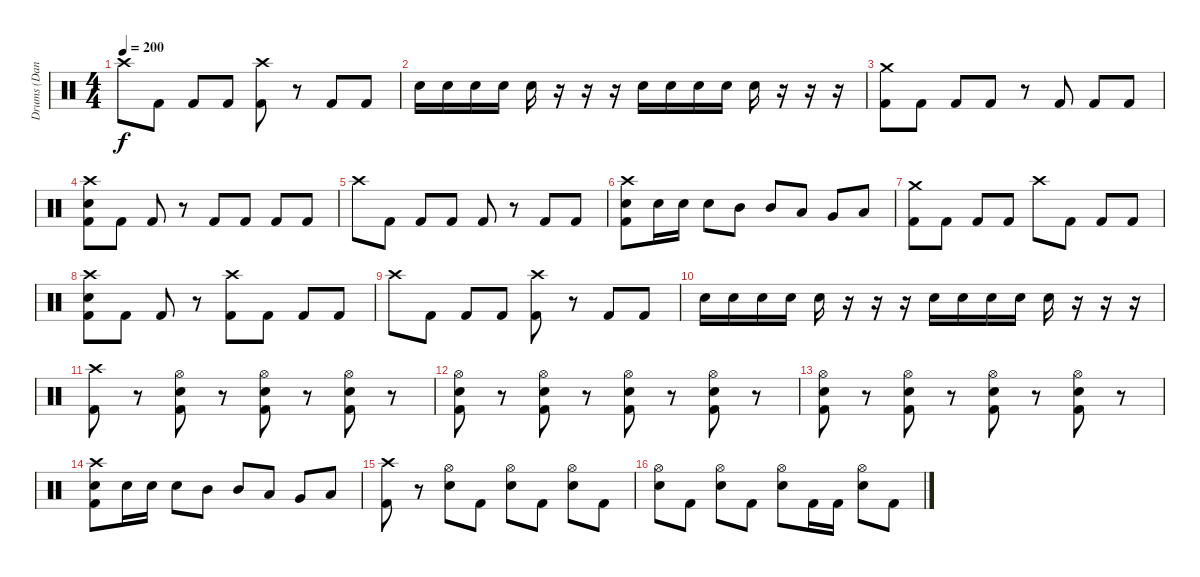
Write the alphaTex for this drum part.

\track ("Drums (Daniel)" "Drums (Dan") {instrument percussion}
\staff {score}
\articulation defaults
\ts (4 4)
\tempo 200
\clef neutral
\ks c "Crash high (hit)".8{dy f} "Kick (hit) 2".8 "Kick (hit) 2".8 "Kick (hit) 2".8
("Crash high (hit)" "Kick (hit) 2").8 r.8 "Kick (hit) 2".8 "Kick (hit) 2".8 |
"Electric Snare (hit)".16 "Electric Snare (hit)".16 "Electric Snare (hit)".16 "Electric Snare (hit)".16 "Electric Snare (hit)".16 r.16 r.16 r.16 "Electric Snare (hit)".16 "Electric Snare (hit)".16 "Electric Snare (hit)".16 "Electric Snare (hit)".16 "Electric Snare (hit)".16 r.16 r.16 r.16 |
("Crash medium (hit)" "Kick (hit) 2").8 "Kick (hit) 2".8 "Kick (hit) 2".8 "Kick (hit) 2".8 r.8 "Kick (hit) 2".8 "Kick (hit) 2".8 "Kick (hit) 2".8 |
("Crash high (hit)" "Electric Snare (hit)" "Kick (hit) 2").8 "Kick (hit) 2".8 "Kick (hit) 2".8 r.8 "Kick (hit) 2".8 "Kick (hit) 2".8 "Kick (hit) 2".8 "Kick (hit) 2".8 |
"Crash high (hit)".8 "Kick (hit) 2".8 "Kick (hit) 2".8 "Kick (hit) 2".8 "Kick (hit) 2".8 r.8 "Kick (hit) 2".8 "Kick (hit) 2".8 |
("Crash high (hit)" "Electric Snare (hit)" "Kick (hit) 2").8 "Electric Snare (hit)".16 "Electric Snare (hit)".16 "Electric Snare (hit)".8 "Mid Tom (hit)".8 "Mid Tom (hit)".8 "Low Tom (hit)".8 "Very Low Tom (hit)".8 "Low Floor Tom (hit)".8 |
("Crash medium (hit)" "Kick (hit) 2").8 "Kick (hit) 2".8 "Kick (hit) 2".8 "Kick (hit) 2".8 "Crash high (hit)".8 "Kick (hit) 2".8 "Kick (hit) 2".8 "Kick (hit) 2".8 |
("Crash high (hit)" "Electric Snare (hit)" "Kick (hit) 2").8 "Kick (hit) 2".8 "Kick (hit) 2".8 r.8 ("Crash high (hit)" "Kick (hit) 2").8 "Kick (hit) 2".8 "Kick (hit) 2".8 "Kick (hit) 2".8 |
"Crash high (hit)".8 "Kick (hit) 2".8 "Kick (hit) 2".8 "Kick (hit) 2".8 ("Crash high (hit)" "Kick (hit) 2").8 r.8 "Kick (hit) 2".8 "Kick (hit) 2".8 |
"Electric Snare (hit)".16 "Electric Snare (hit)".16 "Electric Snare (hit)".16 "Electric Snare (hit)".16 "Electric Snare (hit)".16 r.16 r.16 r.16 "Electric Snare (hit)".16 "Electric Snare (hit)".16 "Electric Snare (hit)".16 "Electric Snare (hit)".16 "Electric Snare (hit)".16 r.16 r.16 r.16 |
("Crash high (hit)" "Kick (hit) 2").8 r.8 ("Hi-Hat (open)" "Electric Snare (hit)" "Kick (hit) 2").8 r.8 ("Hi-Hat (open)" "Electric Snare (hit)" "Kick (hit) 2").8 r.8 ("Hi-Hat (open)" "Electric Snare (hit)" "Kick (hit) 2").8 r.8 |
("Hi-Hat (open)" "Electric Snare (hit)" "Kick (hit) 2").8 r.8 ("Hi-Hat (open)" "Electric Snare (hit)" "Kick (hit) 2").8 r.8 ("Hi-Hat (open)" "Electric Snare (hit)" "Kick (hit) 2").8 r.8 ("Hi-Hat (open)" "Electric Snare (hit)" "Kick (hit) 2").8 r.8 |
("Hi-Hat (open)" "Electric Snare (hit)" "Kick (hit) 2").8 r.8 ("Hi-Hat (open)" "Electric Snare (hit)" "Kick (hit) 2").8 r.8 ("Hi-Hat (open)" "Electric Snare (hit)" "Kick (hit) 2").8 r.8 ("Hi-Hat (open)" "Electric Snare (hit)" "Kick (hit) 2").8 r.8 |
("Crash high (hit)" "Electric Snare (hit)" "Kick (hit) 2").8 "Electric Snare (hit)".16 "Electric Snare (hit)".16 "Electric Snare (hit)".8 "Mid Tom (hit)".8 "Mid Tom (hit)".8 "Low Tom (hit)".8 "Very Low Tom (hit)".8 "Low Floor Tom (hit)".8 |
("Crash high (hit)" "Kick (hit) 2").8 r.8 ("Hi-Hat (open)" "Electric Snare (hit)").8 "Kick (hit) 2".8 ("Hi-Hat (open)" "Electric Snare (hit)").8 "Kick (hit) 2".8 ("Hi-Hat (open)" "Electric Snare (hit)").8 "Kick (hit) 2".8 |
("Hi-Hat (open)" "Electric Snare (hit)").8 "Kick (hit) 2".8 ("Hi-Hat (open)" "Electric Snare (hit)").8 "Kick (hit) 2".8 ("Hi-Hat (open)" "Electric Snare (hit)").8 "Kick (hit) 2".16 "Kick (hit) 2".16 ("Hi-Hat (open)" "Electric Snare (hit)").8 "Kick (hit) 2".8
